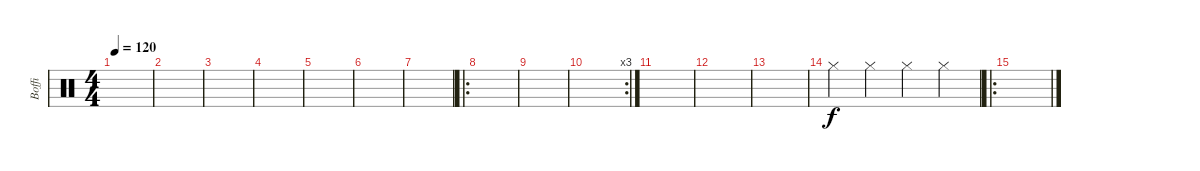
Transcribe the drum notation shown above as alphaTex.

\track ("Boffi" "Boffi") {instrument percussion}
\staff {score}
\articulation defaults
\ts (4 4)
\tempo 120
\clef neutral
\ks c
|
|
|
|
|
|
|
\ro
|
|
\rc 3
|
|
|
|
"Hi-Hat (closed)".4 "Hi-Hat (closed)".4 "Hi-Hat (closed)".4 "Hi-Hat (closed)".4 |
\ro
